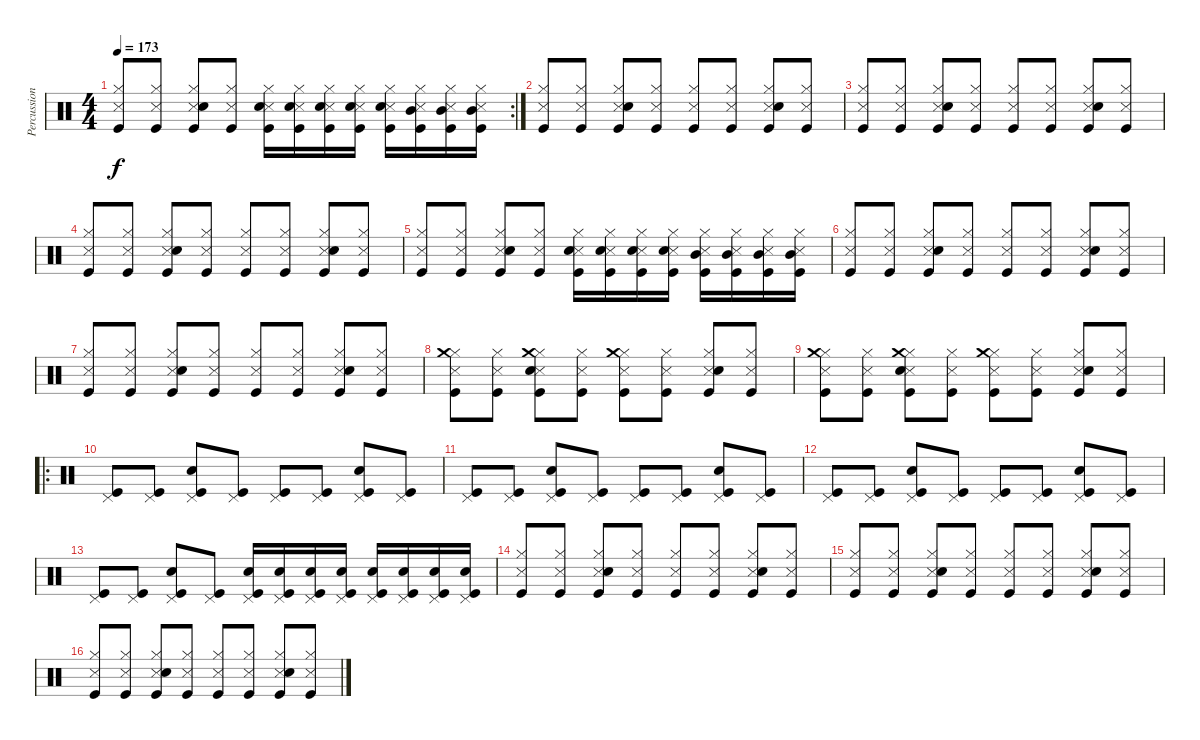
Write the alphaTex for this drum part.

\track ("Percussion" "Percussion") {instrument percussion}
\staff {score}
\articulation defaults
\rc 2
\ts (4 4)
\tempo 173
\clef neutral
\ks c
("Snare (side stick) 3" "Hi-Hat (closed)" "Kick (hit)").8{dy f} ("Snare (side stick) 3" "Hi-Hat (closed)" "Kick (hit)").8 ("Snare (side stick) 3" "Hi-Hat (closed)" "Snare (hit) 2" "Kick (hit)").8 ("Snare (side stick) 3" "Hi-Hat (closed)" "Kick (hit)").8 ("Snare (side stick) 3" "Hi-Hat (closed)" "Snare (hit) 2" "Kick (hit)").16 ("Snare (side stick) 3" "Hi-Hat (closed)" "Snare (hit) 2" "Kick (hit)").16 ("Snare (side stick) 3" "Hi-Hat (closed)" "Snare (hit) 2" "Kick (hit)").16 ("Snare (side stick) 3" "Hi-Hat (closed)" "Snare (hit) 2" "Kick (hit)").16 ("Snare (side stick) 3" "Hi-Hat (closed)" "Snare (hit)" "Kick (hit)").16 ("Snare (side stick) 3" "Hi-Hat (closed)" "Mid Tom (hit)" "Kick (hit)").16 ("Snare (side stick) 3" "Hi-Hat (closed)" "Mid Tom (hit)" "Kick (hit)").16 ("Snare (side stick) 3" "Hi-Hat (closed)" "Mid Tom (hit)" "Kick (hit)").16 |
("Snare (side stick) 3" "Hi-Hat (closed)" "Kick (hit)").8 ("Snare (side stick) 3" "Hi-Hat (closed)" "Kick (hit)").8 ("Snare (side stick) 3" "Hi-Hat (closed)" "Snare (hit) 2" "Kick (hit)").8 ("Snare (side stick) 3" "Hi-Hat (closed)" "Kick (hit)").8 ("Snare (side stick) 3" "Hi-Hat (closed)" "Kick (hit)").8 ("Snare (side stick) 3" "Hi-Hat (closed)" "Kick (hit)").8 ("Snare (side stick) 3" "Hi-Hat (closed)" "Snare (hit) 2" "Kick (hit)").8 ("Snare (side stick) 3" "Hi-Hat (closed)" "Kick (hit)").8 |
("Snare (side stick) 3" "Hi-Hat (closed)" "Kick (hit)").8 ("Snare (side stick) 3" "Hi-Hat (closed)" "Kick (hit)").8 ("Snare (side stick) 3" "Hi-Hat (closed)" "Snare (hit) 2" "Kick (hit)").8 ("Snare (side stick) 3" "Hi-Hat (closed)" "Kick (hit)").8 ("Snare (side stick) 3" "Hi-Hat (closed)" "Kick (hit)").8 ("Snare (side stick) 3" "Hi-Hat (closed)" "Kick (hit)").8 ("Snare (side stick) 3" "Hi-Hat (closed)" "Snare (hit) 2" "Kick (hit)").8 ("Snare (side stick) 3" "Hi-Hat (closed)" "Kick (hit)").8 |
("Snare (side stick) 3" "Hi-Hat (closed)" "Kick (hit)").8 ("Snare (side stick) 3" "Hi-Hat (closed)" "Kick (hit)").8 ("Snare (side stick) 3" "Hi-Hat (closed)" "Snare (hit) 2" "Kick (hit)").8 ("Snare (side stick) 3" "Hi-Hat (closed)" "Kick (hit)").8 ("Snare (side stick) 3" "Hi-Hat (closed)" "Kick (hit)").8 ("Snare (side stick) 3" "Hi-Hat (closed)" "Kick (hit)").8 ("Snare (side stick) 3" "Hi-Hat (closed)" "Snare (hit) 2" "Kick (hit)").8 ("Snare (side stick) 3" "Hi-Hat (closed)" "Kick (hit)").8 |
("Snare (side stick) 3" "Hi-Hat (closed)" "Kick (hit)").8 ("Snare (side stick) 3" "Hi-Hat (closed)" "Kick (hit)").8 ("Snare (side stick) 3" "Hi-Hat (closed)" "Snare (hit) 2" "Kick (hit)").8 ("Snare (side stick) 3" "Hi-Hat (closed)" "Kick (hit)").8 ("Snare (side stick) 3" "Hi-Hat (closed)" "Snare (hit) 2" "Kick (hit)").16 ("Snare (side stick) 3" "Hi-Hat (closed)" "Snare (hit) 2" "Kick (hit)").16 ("Snare (side stick) 3" "Hi-Hat (closed)" "Snare (hit) 2" "Kick (hit)").16 ("Snare (side stick) 3" "Hi-Hat (closed)" "Snare (hit) 2" "Kick (hit)").16 ("Snare (side stick) 3" "Hi-Hat (closed)" "Mid Tom (hit)" "Kick (hit)").16 ("Snare (side stick) 3" "Hi-Hat (closed)" "Mid Tom (hit)" "Kick (hit)").16 ("Snare (side stick) 3" "Hi-Hat (closed)" "Mid Tom (hit)" "Kick (hit)").16 ("Snare (side stick) 3" "Hi-Hat (closed)" "Mid Tom (hit)" "Kick (hit)").16 |
("Snare (side stick) 3" "Hi-Hat (closed)" "Kick (hit)").8 ("Snare (side stick) 3" "Hi-Hat (closed)" "Kick (hit)").8 ("Snare (side stick) 3" "Hi-Hat (closed)" "Snare (hit) 2" "Kick (hit)").8 ("Snare (side stick) 3" "Hi-Hat (closed)" "Kick (hit)").8 ("Snare (side stick) 3" "Hi-Hat (closed)" "Kick (hit)").8 ("Snare (side stick) 3" "Hi-Hat (closed)" "Kick (hit)").8 ("Snare (side stick) 3" "Hi-Hat (closed)" "Snare (hit) 2" "Kick (hit)").8 ("Snare (side stick) 3" "Hi-Hat (closed)" "Kick (hit)").8 |
("Snare (side stick) 3" "Hi-Hat (closed)" "Kick (hit)").8 ("Snare (side stick) 3" "Hi-Hat (closed)" "Kick (hit)").8 ("Snare (side stick) 3" "Hi-Hat (closed)" "Snare (hit) 2" "Kick (hit)").8 ("Snare (side stick) 3" "Hi-Hat (closed)" "Kick (hit)").8 ("Snare (side stick) 3" "Hi-Hat (closed)" "Kick (hit)").8 ("Snare (side stick) 3" "Hi-Hat (closed)" "Kick (hit)").8 ("Snare (side stick) 3" "Hi-Hat (closed)" "Snare (hit) 2" "Kick (hit)").8 ("Snare (side stick) 3" "Hi-Hat (closed)" "Kick (hit)").8 |
("Snare (side stick) 3" "Hi-Hat (closed)" "Crash medium (hit)" "Kick (hit)").8 ("Snare (side stick) 3" "Hi-Hat (closed)" "Kick (hit)").8 ("Snare (side stick) 3" "Hi-Hat (closed)" "Crash medium (hit)" "Snare (hit) 2" "Kick (hit)").8 ("Snare (side stick) 3" "Hi-Hat (closed)" "Kick (hit)").8 ("Snare (side stick) 3" "Hi-Hat (closed)" "Crash medium (hit)" "Kick (hit)").8 ("Snare (side stick) 3" "Hi-Hat (closed)" "Kick (hit)").8 ("Snare (side stick) 3" "Hi-Hat (closed)" "Snare (hit) 2" "Kick (hit)").8 ("Snare (side stick) 3" "Hi-Hat (closed)" "Kick (hit)").8 |
("Snare (side stick) 3" "Hi-Hat (closed)" "Crash medium (hit)" "Kick (hit)").8 ("Snare (side stick) 3" "Hi-Hat (closed)" "Kick (hit)").8 ("Snare (side stick) 3" "Hi-Hat (closed)" "Crash medium (hit)" "Snare (hit) 2" "Kick (hit)").8 ("Snare (side stick) 3" "Hi-Hat (closed)" "Kick (hit)").8 ("Snare (side stick) 3" "Hi-Hat (closed)" "Crash medium (hit)" "Kick (hit)").8 ("Snare (side stick) 3" "Hi-Hat (closed)" "Kick (hit)").8 ("Snare (side stick) 3" "Hi-Hat (closed)" "Snare (hit) 2" "Kick (hit)").8 ("Snare (side stick) 3" "Hi-Hat (closed)" "Kick (hit)").8 |
\ro
("Pedal Hi-Hat (hit)" "Kick (hit)").8 ("Pedal Hi-Hat (hit)" "Kick (hit)").8 ("Pedal Hi-Hat (hit)" "Snare (hit) 2" "Kick (hit)").8 ("Pedal Hi-Hat (hit)" "Kick (hit)").8 ("Pedal Hi-Hat (hit)" "Kick (hit)").8 ("Pedal Hi-Hat (hit)" "Kick (hit)").8 ("Pedal Hi-Hat (hit)" "Snare (hit) 2" "Kick (hit)").8 ("Pedal Hi-Hat (hit)" "Kick (hit)").8 |
("Pedal Hi-Hat (hit)" "Kick (hit)").8 ("Pedal Hi-Hat (hit)" "Kick (hit)").8 ("Pedal Hi-Hat (hit)" "Snare (hit) 2" "Kick (hit)").8 ("Pedal Hi-Hat (hit)" "Kick (hit)").8 ("Pedal Hi-Hat (hit)" "Kick (hit)").8 ("Pedal Hi-Hat (hit)" "Kick (hit)").8 ("Pedal Hi-Hat (hit)" "Snare (hit) 2" "Kick (hit)").8 ("Pedal Hi-Hat (hit)" "Kick (hit)").8 |
("Pedal Hi-Hat (hit)" "Kick (hit)").8 ("Pedal Hi-Hat (hit)" "Kick (hit)").8 ("Pedal Hi-Hat (hit)" "Snare (hit) 2" "Kick (hit)").8 ("Pedal Hi-Hat (hit)" "Kick (hit)").8 ("Pedal Hi-Hat (hit)" "Kick (hit)").8 ("Pedal Hi-Hat (hit)" "Kick (hit)").8 ("Pedal Hi-Hat (hit)" "Snare (hit) 2" "Kick (hit)").8 ("Pedal Hi-Hat (hit)" "Kick (hit)").8 |
("Pedal Hi-Hat (hit)" "Kick (hit)").8 ("Pedal Hi-Hat (hit)" "Kick (hit)").8 ("Pedal Hi-Hat (hit)" "Snare (hit) 2" "Kick (hit)").8 ("Pedal Hi-Hat (hit)" "Kick (hit)").8 ("Pedal Hi-Hat (hit)" "Snare (hit) 2" "Kick (hit)").16 ("Pedal Hi-Hat (hit)" "Snare (hit) 2" "Kick (hit)").16 ("Pedal Hi-Hat (hit)" "Snare (hit) 2" "Kick (hit)").16 ("Pedal Hi-Hat (hit)" "Snare (hit) 2" "Kick (hit)").16 ("Pedal Hi-Hat (hit)" "Snare (hit) 2" "Kick (hit)").16 ("Pedal Hi-Hat (hit)" "Snare (hit) 2" "Kick (hit)").16 ("Pedal Hi-Hat (hit)" "Snare (hit) 2" "Kick (hit)").16 ("Pedal Hi-Hat (hit)" "Snare (hit) 2" "Kick (hit)").16 |
("Snare (side stick) 3" "Hi-Hat (closed)" "Kick (hit)").8 ("Snare (side stick) 3" "Hi-Hat (closed)" "Kick (hit)").8 ("Snare (side stick) 3" "Hi-Hat (closed)" "Snare (hit) 2" "Kick (hit)").8 ("Snare (side stick) 3" "Hi-Hat (closed)" "Kick (hit)").8 ("Snare (side stick) 3" "Hi-Hat (closed)" "Kick (hit)").8 ("Snare (side stick) 3" "Hi-Hat (closed)" "Kick (hit)").8 ("Snare (side stick) 3" "Hi-Hat (closed)" "Snare (hit) 2" "Kick (hit)").8 ("Snare (side stick) 3" "Hi-Hat (closed)" "Kick (hit)").8 |
("Snare (side stick) 3" "Hi-Hat (closed)" "Kick (hit)").8 ("Snare (side stick) 3" "Hi-Hat (closed)" "Kick (hit)").8 ("Snare (side stick) 3" "Hi-Hat (closed)" "Snare (hit) 2" "Kick (hit)").8 ("Snare (side stick) 3" "Hi-Hat (closed)" "Kick (hit)").8 ("Snare (side stick) 3" "Hi-Hat (closed)" "Kick (hit)").8 ("Snare (side stick) 3" "Hi-Hat (closed)" "Kick (hit)").8 ("Snare (side stick) 3" "Hi-Hat (closed)" "Snare (hit) 2" "Kick (hit)").8 ("Snare (side stick) 3" "Hi-Hat (closed)" "Kick (hit)").8 |
("Snare (side stick) 3" "Hi-Hat (closed)" "Kick (hit)").8 ("Snare (side stick) 3" "Hi-Hat (closed)" "Kick (hit)").8 ("Snare (side stick) 3" "Hi-Hat (closed)" "Snare (hit) 2" "Kick (hit)").8 ("Snare (side stick) 3" "Hi-Hat (closed)" "Kick (hit)").8 ("Snare (side stick) 3" "Hi-Hat (closed)" "Kick (hit)").8 ("Snare (side stick) 3" "Hi-Hat (closed)" "Kick (hit)").8 ("Snare (side stick) 3" "Hi-Hat (closed)" "Snare (hit) 2" "Kick (hit)").8 ("Snare (side stick) 3" "Hi-Hat (closed)" "Kick (hit)").8
